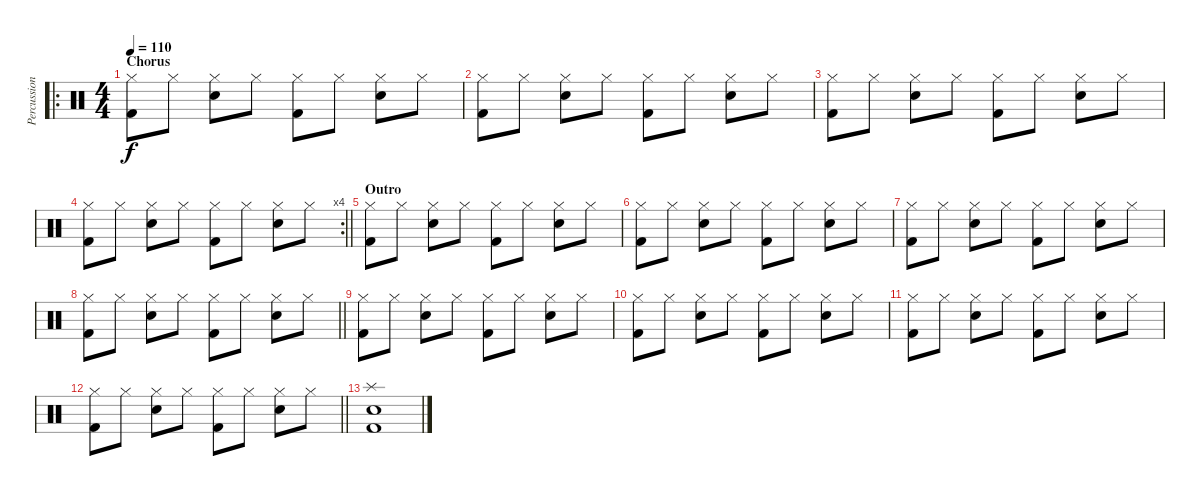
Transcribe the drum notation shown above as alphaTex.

\track ("Percussion" "Percussion") {instrument percussion}
\staff {score}
\articulation defaults
\ro
\ts (4 4)
\section ("" "Chorus")
\tempo 110
\clef neutral
\ks c
("Hi-Hat (closed)" "Kick (hit) 2").8{dy f} "Hi-Hat (closed)".8 ("Hi-Hat (closed)" "Electric Snare (hit)").8 "Hi-Hat (closed)".8 ("Hi-Hat (closed)" "Kick (hit) 2").8 "Hi-Hat (closed)".8 ("Hi-Hat (closed)" "Electric Snare (hit)").8 "Hi-Hat (closed)".8 |
("Hi-Hat (closed)" "Kick (hit) 2").8 "Hi-Hat (closed)".8 ("Hi-Hat (closed)" "Electric Snare (hit)").8 "Hi-Hat (closed)".8 ("Hi-Hat (closed)" "Kick (hit) 2").8 "Hi-Hat (closed)".8 ("Hi-Hat (closed)" "Electric Snare (hit)").8 "Hi-Hat (closed)".8 |
("Hi-Hat (closed)" "Kick (hit) 2").8 "Hi-Hat (closed)".8 ("Hi-Hat (closed)" "Electric Snare (hit)").8 "Hi-Hat (closed)".8 ("Hi-Hat (closed)" "Kick (hit) 2").8 "Hi-Hat (closed)".8 ("Hi-Hat (closed)" "Electric Snare (hit)").8 "Hi-Hat (closed)".8 |
\rc 4
\barLineRight lightlight
("Hi-Hat (closed)" "Kick (hit) 2").8 "Hi-Hat (closed)".8 ("Hi-Hat (closed)" "Electric Snare (hit)").8 "Hi-Hat (closed)".8 ("Hi-Hat (closed)" "Kick (hit) 2").8 "Hi-Hat (closed)".8 ("Hi-Hat (closed)" "Electric Snare (hit)").8 "Hi-Hat (closed)".8 |
\section ("" "Outro")
("Hi-Hat (closed)" "Kick (hit) 2").8 "Hi-Hat (closed)".8 ("Hi-Hat (closed)" "Electric Snare (hit)").8 "Hi-Hat (closed)".8 ("Hi-Hat (closed)" "Kick (hit) 2").8 "Hi-Hat (closed)".8 ("Hi-Hat (closed)" "Electric Snare (hit)").8 "Hi-Hat (closed)".8 |
("Hi-Hat (closed)" "Kick (hit) 2").8 "Hi-Hat (closed)".8 ("Hi-Hat (closed)" "Electric Snare (hit)").8 "Hi-Hat (closed)".8 ("Hi-Hat (closed)" "Kick (hit) 2").8 "Hi-Hat (closed)".8 ("Hi-Hat (closed)" "Electric Snare (hit)").8 "Hi-Hat (closed)".8 |
("Hi-Hat (closed)" "Kick (hit) 2").8 "Hi-Hat (closed)".8 ("Hi-Hat (closed)" "Electric Snare (hit)").8 "Hi-Hat (closed)".8 ("Hi-Hat (closed)" "Kick (hit) 2").8 "Hi-Hat (closed)".8 ("Hi-Hat (closed)" "Electric Snare (hit)").8 "Hi-Hat (closed)".8 |
\barLineRight lightlight
("Hi-Hat (closed)" "Kick (hit) 2").8 "Hi-Hat (closed)".8 ("Hi-Hat (closed)" "Electric Snare (hit)").8 "Hi-Hat (closed)".8 ("Hi-Hat (closed)" "Kick (hit) 2").8 "Hi-Hat (closed)".8 ("Hi-Hat (closed)" "Electric Snare (hit)").8 "Hi-Hat (closed)".8 |
("Hi-Hat (closed)" "Kick (hit) 2").8 "Hi-Hat (closed)".8 ("Hi-Hat (closed)" "Electric Snare (hit)").8 "Hi-Hat (closed)".8 ("Hi-Hat (closed)" "Kick (hit) 2").8 "Hi-Hat (closed)".8 ("Hi-Hat (closed)" "Electric Snare (hit)").8 "Hi-Hat (closed)".8 |
("Hi-Hat (closed)" "Kick (hit) 2").8 "Hi-Hat (closed)".8 ("Hi-Hat (closed)" "Electric Snare (hit)").8 "Hi-Hat (closed)".8 ("Hi-Hat (closed)" "Kick (hit) 2").8 "Hi-Hat (closed)".8 ("Hi-Hat (closed)" "Electric Snare (hit)").8 "Hi-Hat (closed)".8 |
("Hi-Hat (closed)" "Kick (hit) 2").8 "Hi-Hat (closed)".8 ("Hi-Hat (closed)" "Electric Snare (hit)").8 "Hi-Hat (closed)".8 ("Hi-Hat (closed)" "Kick (hit) 2").8 "Hi-Hat (closed)".8 ("Hi-Hat (closed)" "Electric Snare (hit)").8 "Hi-Hat (closed)".8 |
\barLineRight lightlight
("Hi-Hat (closed)" "Kick (hit) 2").8 "Hi-Hat (closed)".8 ("Hi-Hat (closed)" "Electric Snare (hit)").8 "Hi-Hat (closed)".8 ("Hi-Hat (closed)" "Kick (hit) 2").8 "Hi-Hat (closed)".8 ("Hi-Hat (closed)" "Electric Snare (hit)").8 "Hi-Hat (closed)".8 |
("Electric Snare (hit)" "Kick (hit) 2" "Splash (hit)").1
